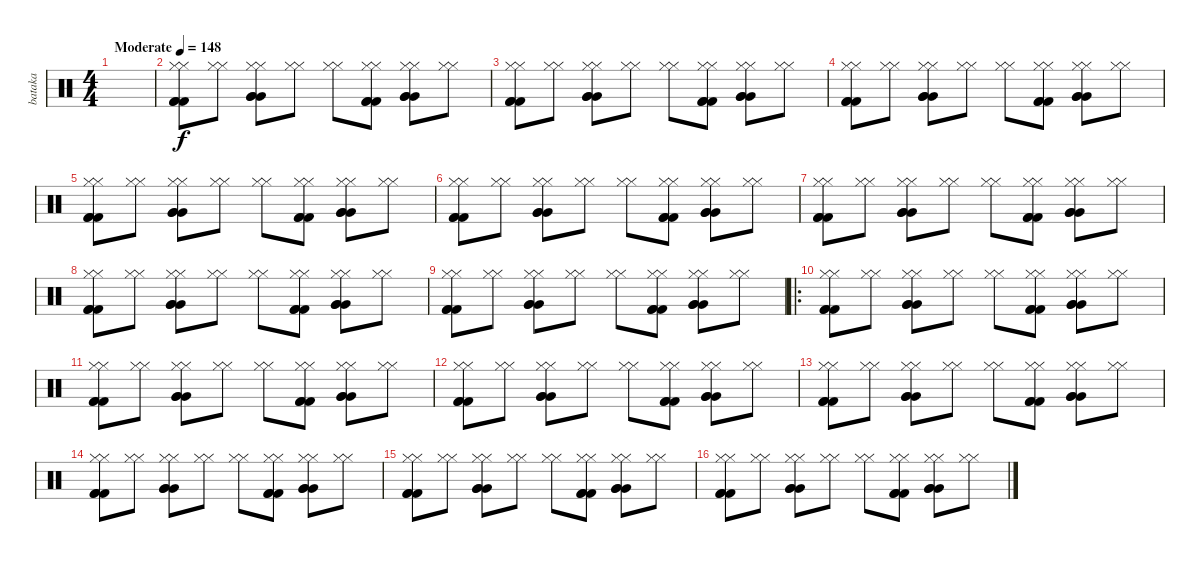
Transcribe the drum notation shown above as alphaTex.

\track ("bataka" "bataka") {instrument percussion}
\staff {score}
\articulation defaults
\ts (4 4)
\tempo (148 "Moderate")
\clef neutral
\ks c
|
("Hi-Hat (closed)" "Hi-Hat (closed)" "Kick (hit) 2" "Kick (hit) 2" "Kick (hit) 2").8 ("Hi-Hat (closed)" "Hi-Hat (closed)").8 ("Hi-Hat (closed)" "Hi-Hat (closed)" "Very Low Tom (hit)" "Very Low Tom (hit)" "Very Low Tom (hit)").8 ("Hi-Hat (closed)" "Hi-Hat (closed)").8 ("Hi-Hat (closed)" "Hi-Hat (closed)").8 ("Hi-Hat (closed)" "Hi-Hat (closed)" "Kick (hit) 2" "Kick (hit) 2" "Kick (hit) 2").8 ("Hi-Hat (closed)" "Hi-Hat (closed)" "Very Low Tom (hit)" "Very Low Tom (hit)" "Very Low Tom (hit)").8 ("Hi-Hat (closed)" "Hi-Hat (closed)").8 |
("Hi-Hat (closed)" "Hi-Hat (closed)" "Kick (hit) 2" "Kick (hit) 2" "Kick (hit) 2").8 ("Hi-Hat (closed)" "Hi-Hat (closed)").8 ("Hi-Hat (closed)" "Hi-Hat (closed)" "Very Low Tom (hit)" "Very Low Tom (hit)" "Very Low Tom (hit)").8 ("Hi-Hat (closed)" "Hi-Hat (closed)").8 ("Hi-Hat (closed)" "Hi-Hat (closed)").8 ("Hi-Hat (closed)" "Hi-Hat (closed)" "Kick (hit) 2" "Kick (hit) 2" "Kick (hit) 2").8 ("Hi-Hat (closed)" "Hi-Hat (closed)" "Very Low Tom (hit)" "Very Low Tom (hit)" "Very Low Tom (hit)").8 ("Hi-Hat (closed)" "Hi-Hat (closed)").8 |
("Hi-Hat (closed)" "Hi-Hat (closed)" "Kick (hit) 2" "Kick (hit) 2" "Kick (hit) 2").8 ("Hi-Hat (closed)" "Hi-Hat (closed)").8 ("Hi-Hat (closed)" "Hi-Hat (closed)" "Very Low Tom (hit)" "Very Low Tom (hit)" "Very Low Tom (hit)").8 ("Hi-Hat (closed)" "Hi-Hat (closed)").8 ("Hi-Hat (closed)" "Hi-Hat (closed)").8 ("Hi-Hat (closed)" "Hi-Hat (closed)" "Kick (hit) 2" "Kick (hit) 2" "Kick (hit) 2").8 ("Hi-Hat (closed)" "Hi-Hat (closed)" "Very Low Tom (hit)" "Very Low Tom (hit)" "Very Low Tom (hit)").8 ("Hi-Hat (closed)" "Hi-Hat (closed)").8 |
("Hi-Hat (closed)" "Hi-Hat (closed)" "Kick (hit) 2" "Kick (hit) 2" "Kick (hit) 2").8 ("Hi-Hat (closed)" "Hi-Hat (closed)").8 ("Hi-Hat (closed)" "Hi-Hat (closed)" "Very Low Tom (hit)" "Very Low Tom (hit)" "Very Low Tom (hit)").8 ("Hi-Hat (closed)" "Hi-Hat (closed)").8 ("Hi-Hat (closed)" "Hi-Hat (closed)").8 ("Hi-Hat (closed)" "Hi-Hat (closed)" "Kick (hit) 2" "Kick (hit) 2" "Kick (hit) 2").8 ("Hi-Hat (closed)" "Hi-Hat (closed)" "Very Low Tom (hit)" "Very Low Tom (hit)" "Very Low Tom (hit)").8 ("Hi-Hat (closed)" "Hi-Hat (closed)").8 |
("Hi-Hat (closed)" "Hi-Hat (closed)" "Kick (hit) 2" "Kick (hit) 2" "Kick (hit) 2").8 ("Hi-Hat (closed)" "Hi-Hat (closed)").8 ("Hi-Hat (closed)" "Hi-Hat (closed)" "Very Low Tom (hit)" "Very Low Tom (hit)" "Very Low Tom (hit)").8 ("Hi-Hat (closed)" "Hi-Hat (closed)").8 ("Hi-Hat (closed)" "Hi-Hat (closed)").8 ("Hi-Hat (closed)" "Hi-Hat (closed)" "Kick (hit) 2" "Kick (hit) 2" "Kick (hit) 2").8 ("Hi-Hat (closed)" "Hi-Hat (closed)" "Very Low Tom (hit)" "Very Low Tom (hit)" "Very Low Tom (hit)").8 ("Hi-Hat (closed)" "Hi-Hat (closed)").8 |
("Hi-Hat (closed)" "Hi-Hat (closed)" "Kick (hit) 2" "Kick (hit) 2" "Kick (hit) 2").8 ("Hi-Hat (closed)" "Hi-Hat (closed)").8 ("Hi-Hat (closed)" "Hi-Hat (closed)" "Very Low Tom (hit)" "Very Low Tom (hit)" "Very Low Tom (hit)").8 ("Hi-Hat (closed)" "Hi-Hat (closed)").8 ("Hi-Hat (closed)" "Hi-Hat (closed)").8 ("Hi-Hat (closed)" "Hi-Hat (closed)" "Kick (hit) 2" "Kick (hit) 2" "Kick (hit) 2").8 ("Hi-Hat (closed)" "Hi-Hat (closed)" "Very Low Tom (hit)" "Very Low Tom (hit)" "Very Low Tom (hit)").8 ("Hi-Hat (closed)" "Hi-Hat (closed)").8 |
("Hi-Hat (closed)" "Hi-Hat (closed)" "Kick (hit) 2" "Kick (hit) 2" "Kick (hit) 2").8 ("Hi-Hat (closed)" "Hi-Hat (closed)").8 ("Hi-Hat (closed)" "Hi-Hat (closed)" "Very Low Tom (hit)" "Very Low Tom (hit)" "Very Low Tom (hit)").8 ("Hi-Hat (closed)" "Hi-Hat (closed)").8 ("Hi-Hat (closed)" "Hi-Hat (closed)").8 ("Hi-Hat (closed)" "Hi-Hat (closed)" "Kick (hit) 2" "Kick (hit) 2" "Kick (hit) 2").8 ("Hi-Hat (closed)" "Hi-Hat (closed)" "Very Low Tom (hit)" "Very Low Tom (hit)" "Very Low Tom (hit)").8 ("Hi-Hat (closed)" "Hi-Hat (closed)").8 |
("Hi-Hat (closed)" "Hi-Hat (closed)" "Kick (hit) 2" "Kick (hit) 2" "Kick (hit) 2").8 ("Hi-Hat (closed)" "Hi-Hat (closed)").8 ("Hi-Hat (closed)" "Hi-Hat (closed)" "Very Low Tom (hit)" "Very Low Tom (hit)" "Very Low Tom (hit)").8 ("Hi-Hat (closed)" "Hi-Hat (closed)").8 ("Hi-Hat (closed)" "Hi-Hat (closed)").8 ("Hi-Hat (closed)" "Hi-Hat (closed)" "Kick (hit) 2" "Kick (hit) 2" "Kick (hit) 2").8 ("Hi-Hat (closed)" "Hi-Hat (closed)" "Very Low Tom (hit)" "Very Low Tom (hit)" "Very Low Tom (hit)").8 ("Hi-Hat (closed)" "Hi-Hat (closed)").8 |
\ro
("Hi-Hat (closed)" "Hi-Hat (closed)" "Kick (hit) 2" "Kick (hit) 2" "Kick (hit) 2").8 ("Hi-Hat (closed)" "Hi-Hat (closed)").8 ("Hi-Hat (closed)" "Hi-Hat (closed)" "Very Low Tom (hit)" "Very Low Tom (hit)" "Very Low Tom (hit)").8 ("Hi-Hat (closed)" "Hi-Hat (closed)").8 ("Hi-Hat (closed)" "Hi-Hat (closed)").8 ("Hi-Hat (closed)" "Hi-Hat (closed)" "Kick (hit) 2" "Kick (hit) 2" "Kick (hit) 2").8 ("Hi-Hat (closed)" "Hi-Hat (closed)" "Very Low Tom (hit)" "Very Low Tom (hit)" "Very Low Tom (hit)").8 ("Hi-Hat (closed)" "Hi-Hat (closed)").8 |
("Hi-Hat (closed)" "Hi-Hat (closed)" "Kick (hit) 2" "Kick (hit) 2" "Kick (hit) 2").8 ("Hi-Hat (closed)" "Hi-Hat (closed)").8 ("Hi-Hat (closed)" "Hi-Hat (closed)" "Very Low Tom (hit)" "Very Low Tom (hit)" "Very Low Tom (hit)").8 ("Hi-Hat (closed)" "Hi-Hat (closed)").8 ("Hi-Hat (closed)" "Hi-Hat (closed)").8 ("Hi-Hat (closed)" "Hi-Hat (closed)" "Kick (hit) 2" "Kick (hit) 2" "Kick (hit) 2").8 ("Hi-Hat (closed)" "Hi-Hat (closed)" "Very Low Tom (hit)" "Very Low Tom (hit)" "Very Low Tom (hit)").8 ("Hi-Hat (closed)" "Hi-Hat (closed)").8 |
("Hi-Hat (closed)" "Hi-Hat (closed)" "Kick (hit) 2" "Kick (hit) 2" "Kick (hit) 2").8 ("Hi-Hat (closed)" "Hi-Hat (closed)").8 ("Hi-Hat (closed)" "Hi-Hat (closed)" "Very Low Tom (hit)" "Very Low Tom (hit)" "Very Low Tom (hit)").8 ("Hi-Hat (closed)" "Hi-Hat (closed)").8 ("Hi-Hat (closed)" "Hi-Hat (closed)").8 ("Hi-Hat (closed)" "Hi-Hat (closed)" "Kick (hit) 2" "Kick (hit) 2" "Kick (hit) 2").8 ("Hi-Hat (closed)" "Hi-Hat (closed)" "Very Low Tom (hit)" "Very Low Tom (hit)" "Very Low Tom (hit)").8 ("Hi-Hat (closed)" "Hi-Hat (closed)").8 |
("Hi-Hat (closed)" "Hi-Hat (closed)" "Kick (hit) 2" "Kick (hit) 2" "Kick (hit) 2").8 ("Hi-Hat (closed)" "Hi-Hat (closed)").8 ("Hi-Hat (closed)" "Hi-Hat (closed)" "Very Low Tom (hit)" "Very Low Tom (hit)" "Very Low Tom (hit)").8 ("Hi-Hat (closed)" "Hi-Hat (closed)").8 ("Hi-Hat (closed)" "Hi-Hat (closed)").8 ("Hi-Hat (closed)" "Hi-Hat (closed)" "Kick (hit) 2" "Kick (hit) 2" "Kick (hit) 2").8 ("Hi-Hat (closed)" "Hi-Hat (closed)" "Very Low Tom (hit)" "Very Low Tom (hit)" "Very Low Tom (hit)").8 ("Hi-Hat (closed)" "Hi-Hat (closed)").8 |
("Hi-Hat (closed)" "Hi-Hat (closed)" "Kick (hit) 2" "Kick (hit) 2" "Kick (hit) 2").8 ("Hi-Hat (closed)" "Hi-Hat (closed)").8 ("Hi-Hat (closed)" "Hi-Hat (closed)" "Very Low Tom (hit)" "Very Low Tom (hit)" "Very Low Tom (hit)").8 ("Hi-Hat (closed)" "Hi-Hat (closed)").8 ("Hi-Hat (closed)" "Hi-Hat (closed)").8 ("Hi-Hat (closed)" "Hi-Hat (closed)" "Kick (hit) 2" "Kick (hit) 2" "Kick (hit) 2").8 ("Hi-Hat (closed)" "Hi-Hat (closed)" "Very Low Tom (hit)" "Very Low Tom (hit)" "Very Low Tom (hit)").8 ("Hi-Hat (closed)" "Hi-Hat (closed)").8 |
("Hi-Hat (closed)" "Hi-Hat (closed)" "Kick (hit) 2" "Kick (hit) 2" "Kick (hit) 2").8 ("Hi-Hat (closed)" "Hi-Hat (closed)").8 ("Hi-Hat (closed)" "Hi-Hat (closed)" "Very Low Tom (hit)" "Very Low Tom (hit)" "Very Low Tom (hit)").8 ("Hi-Hat (closed)" "Hi-Hat (closed)").8 ("Hi-Hat (closed)" "Hi-Hat (closed)").8 ("Hi-Hat (closed)" "Hi-Hat (closed)" "Kick (hit) 2" "Kick (hit) 2" "Kick (hit) 2").8 ("Hi-Hat (closed)" "Hi-Hat (closed)" "Very Low Tom (hit)" "Very Low Tom (hit)" "Very Low Tom (hit)").8 ("Hi-Hat (closed)" "Hi-Hat (closed)").8 |
("Hi-Hat (closed)" "Hi-Hat (closed)" "Kick (hit) 2" "Kick (hit) 2" "Kick (hit) 2").8 ("Hi-Hat (closed)" "Hi-Hat (closed)").8 ("Hi-Hat (closed)" "Hi-Hat (closed)" "Very Low Tom (hit)" "Very Low Tom (hit)" "Very Low Tom (hit)").8 ("Hi-Hat (closed)" "Hi-Hat (closed)").8 ("Hi-Hat (closed)" "Hi-Hat (closed)").8 ("Hi-Hat (closed)" "Hi-Hat (closed)" "Kick (hit) 2" "Kick (hit) 2" "Kick (hit) 2").8 ("Hi-Hat (closed)" "Hi-Hat (closed)" "Very Low Tom (hit)" "Very Low Tom (hit)" "Very Low Tom (hit)").8 ("Hi-Hat (closed)" "Hi-Hat (closed)").8
